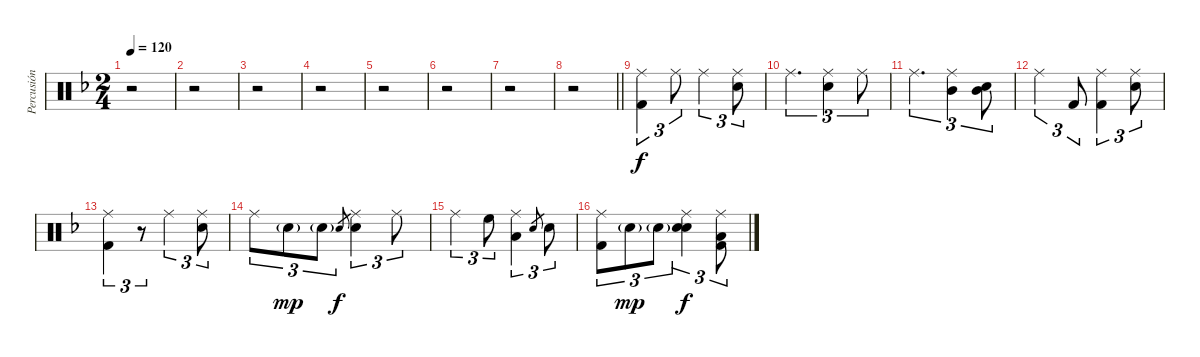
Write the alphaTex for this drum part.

\track ("Percusión" "Percusión") {instrument percussion}
\staff {score}
\articulation defaults
\ts (2 4)
\tempo 120
\clef neutral
\ks dminor
r.2{dy fff} |
r.2 |
r.2 |
r.2 |
r.2 |
r.2 |
r.2 |
\barLineRight lightlight
r.2 |
("Ride (middle)" "Kick (hit) 2").4{tu (3 2) dy f volume 5} "Ride (middle)".8{tu (3 2)} "Ride (middle)".4{tu (3 2)} ("Ride (middle)" "Snare (hit) 2").8{tu (3 2)} |
"Ride (middle)".4{d tu (3 2)} ("Ride (middle)" "Snare (hit) 2").4{tu (3 2)} "Ride (middle)".8{tu (3 2)} |
"Ride (middle)".4{d tu (3 2)} ("Ride (middle)" "Mid Tom (hit)").4{tu (3 2)} ("Mid Tom (hit)" "Snare (hit) 2").8{tu (3 2)} |
"Ride (middle)".4{tu (3 2)} "Kick (hit) 2".8{tu (3 2)} ("Ride (middle)" "Kick (hit) 2").4{tu (3 2)} ("Ride (middle)" "Snare (hit) 2").8{tu (3 2)} |
("Ride (middle)" "Kick (hit) 2").4{tu (3 2)} r.8{tu (3 2)} "Ride (middle)".4{tu (3 2)} ("Ride (middle)" "Snare (hit) 2").8{tu (3 2)} |
"Ride (middle)".8{tu (3 2)} "Snare (hit) 2"{g}.8{tu (3 2) dy mp} "Snare (hit) 2"{g}.8{tu (3 2)} "Snare (hit) 2".8{gr dy f} ("Ride (middle)" "Snare (hit) 2").4{tu (3 2)} "Ride (middle)".8{tu (3 2)} |
"Ride (middle)".4{tu (3 2)} "High Floor Tom (hit)".8{tu (3 2)} ("Ride (middle)" "Low Tom (hit)").4{tu (3 2)} "Snare (hit) 2".8{gr} "Snare (hit) 2".8{tu (3 2)} |
("Ride (middle)" "Kick (hit) 2").8{tu (3 2)} "Snare (hit) 2"{g}.8{tu (3 2) dy mp} "Snare (hit) 2"{g}.8{tu (3 2)} ("Ride (middle)" "Snare (hit) 2" "Electric Snare (hit)").4{tu (3 2) dy f} ("Ride (middle)" "Low Tom (hit)" "Kick (hit) 2").8{tu (3 2)}
